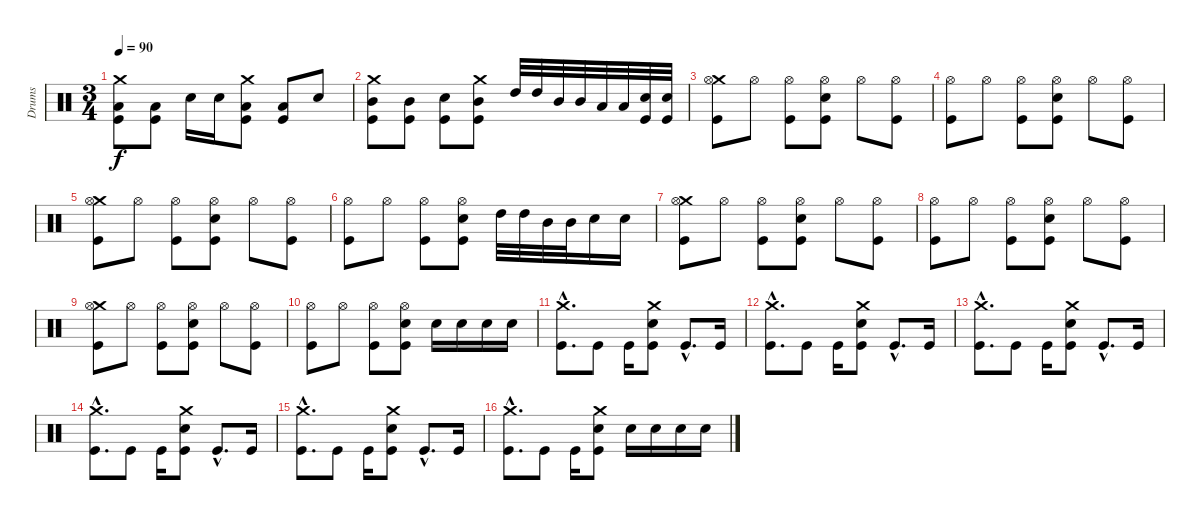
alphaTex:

\track ("Drums" "Drums") {instrument percussion}
\staff {score}
\articulation defaults
\ts (3 4)
\tempo 90
\clef neutral
\ks c
("Crash medium (hit)" "Low Tom (hit)" "Kick (hit)").8{dy f} ("Low Tom (hit)" "Kick (hit)").8 "Snare (hit) 2".16 "Snare (hit) 2".16 ("Crash medium (hit)" "Low Tom (hit)" "Kick (hit)").8 ("Low Tom (hit)" "Kick (hit)").8 "Snare (hit) 2".8 |
("Crash medium (hit)" "Mid Tom (hit)" "Kick (hit)").8 ("Mid Tom (hit)" "Kick (hit)").8 ("Snare (hit) 2" "Kick (hit)").8 ("Crash medium (hit)" "Mid Tom (hit)" "Kick (hit)").8 "High Tom (hit)".32 "High Tom (hit)".32 "Mid Tom (hit)".32 "Mid Tom (hit)".32 "Low Tom (hit)".32 "Low Tom (hit)".32 ("Snare (hit) 2" "Kick (hit)").32 ("Snare (hit) 2" "Kick (hit)").32 |
("Crash medium (hit)" "Hi-Hat (open)" "Kick (hit)").8 "Hi-Hat (open)".8 ("Hi-Hat (open)" "Kick (hit)").8 ("Hi-Hat (open)" "Snare (hit) 2" "Kick (hit)").8 "Hi-Hat (open)".8 ("Hi-Hat (open)" "Kick (hit)").8 |
("Hi-Hat (open)" "Kick (hit)").8 "Hi-Hat (open)".8 ("Hi-Hat (open)" "Kick (hit)").8 ("Hi-Hat (open)" "Snare (hit) 2" "Kick (hit)").8 "Hi-Hat (open)".8 ("Hi-Hat (open)" "Kick (hit)").8 |
("Crash medium (hit)" "Hi-Hat (open)" "Kick (hit)").8 "Hi-Hat (open)".8 ("Hi-Hat (open)" "Kick (hit)").8 ("Hi-Hat (open)" "Snare (hit) 2" "Kick (hit)").8 "Hi-Hat (open)".8 ("Hi-Hat (open)" "Kick (hit)").8 |
("Hi-Hat (open)" "Kick (hit)").8 "Hi-Hat (open)".8 ("Hi-Hat (open)" "Kick (hit)").8 ("Hi-Hat (open)" "Snare (hit) 2" "Kick (hit)").8 "High Tom (hit)".32 "High Tom (hit)".32 "Mid Tom (hit)".32 "Mid Tom (hit)".32 "Snare (hit) 2".16 "Snare (hit) 2".16 |
("Crash medium (hit)" "Hi-Hat (open)" "Kick (hit)").8 "Hi-Hat (open)".8 ("Hi-Hat (open)" "Kick (hit)").8 ("Hi-Hat (open)" "Snare (hit) 2" "Kick (hit)").8 "Hi-Hat (open)".8 ("Hi-Hat (open)" "Kick (hit)").8 |
("Hi-Hat (open)" "Kick (hit)").8 "Hi-Hat (open)".8 ("Hi-Hat (open)" "Kick (hit)").8 ("Hi-Hat (open)" "Snare (hit) 2" "Kick (hit)").8 "Hi-Hat (open)".8 ("Hi-Hat (open)" "Kick (hit)").8 |
("Crash medium (hit)" "Hi-Hat (open)" "Kick (hit)").8 "Hi-Hat (open)".8 ("Hi-Hat (open)" "Kick (hit)").8 ("Hi-Hat (open)" "Snare (hit) 2" "Kick (hit)").8 "Hi-Hat (open)".8 ("Hi-Hat (open)" "Kick (hit)").8 |
("Hi-Hat (open)" "Kick (hit)").8 "Hi-Hat (open)".8 ("Hi-Hat (open)" "Kick (hit)").8 ("Hi-Hat (open)" "Snare (hit) 2" "Kick (hit)").8 "Snare (hit) 2".16 "Snare (hit) 2".16 "Snare (hit) 2".16 "Snare (hit) 2".16 |
("Crash medium (hit)"{hac} "Kick (hit)"{hac}).8{d} "Kick (hit)".8 "Kick (hit)".16 ("Crash medium (hit)" "Snare (hit) 2" "Kick (hit)").8 "Kick (hit)"{hac}.8{d} "Kick (hit)".16 |
("Crash medium (hit)"{hac} "Kick (hit)"{hac}).8{d} "Kick (hit)".8 "Kick (hit)".16 ("Crash medium (hit)" "Snare (hit) 2" "Kick (hit)").8 "Kick (hit)"{hac}.8{d} "Kick (hit)".16 |
("Crash medium (hit)"{hac} "Kick (hit)"{hac}).8{d} "Kick (hit)".8 "Kick (hit)".16 ("Crash medium (hit)" "Snare (hit) 2" "Kick (hit)").8 "Kick (hit)"{hac}.8{d} "Kick (hit)".16 |
("Crash medium (hit)"{hac} "Kick (hit)"{hac}).8{d} "Kick (hit)".8 "Kick (hit)".16 ("Crash medium (hit)" "Snare (hit) 2" "Kick (hit)").8 "Kick (hit)"{hac}.8{d} "Kick (hit)".16 |
("Crash medium (hit)"{hac} "Kick (hit)"{hac}).8{d} "Kick (hit)".8 "Kick (hit)".16 ("Crash medium (hit)" "Snare (hit) 2" "Kick (hit)").8 "Kick (hit)"{hac}.8{d} "Kick (hit)".16 |
("Crash medium (hit)"{hac} "Kick (hit)"{hac}).8{d} "Kick (hit)".8 "Kick (hit)".16 ("Crash medium (hit)" "Snare (hit) 2" "Kick (hit)").8 "Snare (hit) 2".16 "Snare (hit) 2".16 "Snare (hit) 2".16 "Snare (hit) 2".16
